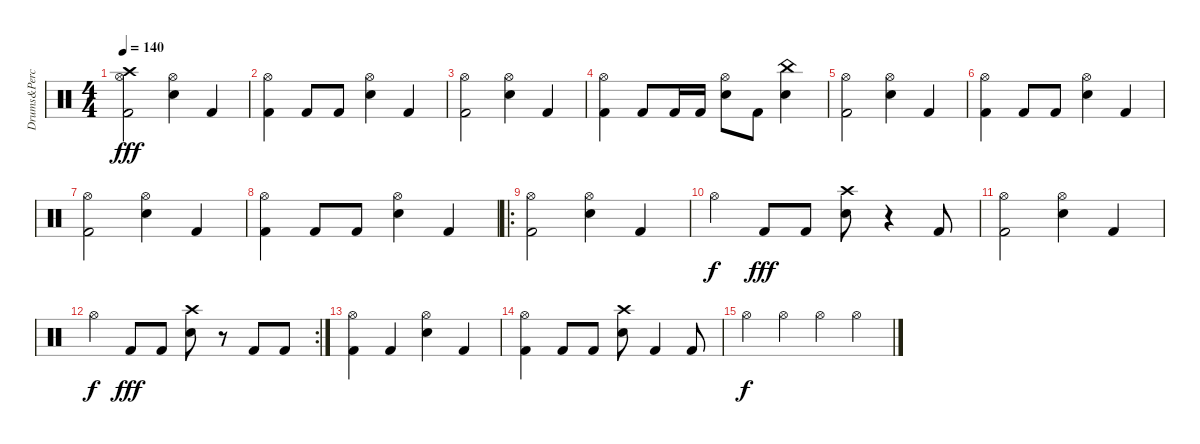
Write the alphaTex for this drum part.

\track ("Drums&Percusion" "Drums&Perc") {instrument percussion}
\staff {score}
\articulation defaults
\ts (4 4)
\tempo 140
\clef neutral
\ks c
("Hi-Hat (open)" "Crash high (hit)" "Kick (hit) 2").2{dy fff} ("Hi-Hat (open)" "Snare (hit) 2").4 "Kick (hit) 2".4 |
("Hi-Hat (open)" "Kick (hit) 2").4 "Kick (hit) 2".8 "Kick (hit) 2".8 ("Hi-Hat (open)" "Snare (hit) 2").4 "Kick (hit) 2".4 |
("Hi-Hat (open)" "Kick (hit) 2").2 ("Hi-Hat (open)" "Snare (hit) 2").4 "Kick (hit) 2".4 |
("Hi-Hat (open)" "Kick (hit) 2").4 "Kick (hit) 2".8 "Kick (hit) 2".16 "Kick (hit) 2".16 ("Hi-Hat (open)" "Snare (hit) 2").8 "Kick (hit) 2".8 ("China (hit)" "Snare (hit) 2").4 |
("Hi-Hat (open)" "Kick (hit) 2").2 ("Hi-Hat (open)" "Snare (hit) 2").4 "Kick (hit) 2".4 |
("Hi-Hat (open)" "Kick (hit) 2").4 "Kick (hit) 2".8 "Kick (hit) 2".8 ("Hi-Hat (open)" "Snare (hit) 2").4 "Kick (hit) 2".4 |
("Hi-Hat (open)" "Kick (hit) 2").2 ("Hi-Hat (open)" "Snare (hit) 2").4 "Kick (hit) 2".4 |
("Hi-Hat (open)" "Kick (hit) 2").4 "Kick (hit) 2".8 "Kick (hit) 2".8 ("Hi-Hat (open)" "Snare (hit) 2").4 "Kick (hit) 2".4 |
\ro
("Hi-Hat (open)" "Kick (hit) 2").2 ("Hi-Hat (open)" "Snare (hit) 2").4 "Kick (hit) 2".4 |
"Hi-Hat (open)".4{dy f} "Kick (hit) 2".8{dy fff} "Kick (hit) 2".8 ("Crash high (hit)" "Snare (hit) 2").8 r.4 "Kick (hit) 2".8 |
("Hi-Hat (open)" "Kick (hit) 2").2 ("Hi-Hat (open)" "Snare (hit) 2").4 "Kick (hit) 2".4 |
\rc 2 "Hi-Hat (open)".4{dy f} "Kick (hit) 2".8{dy fff} "Kick (hit) 2".8
("Crash high (hit)" "Snare (hit) 2").8 r.8 "Kick (hit) 2".8 "Kick (hit) 2".8 |
("Hi-Hat (open)" "Kick (hit) 2").4 "Kick (hit) 2".4 ("Hi-Hat (open)" "Snare (hit) 2").4 "Kick (hit) 2".4 |
("Hi-Hat (open)" "Kick (hit) 2").4 "Kick (hit) 2".8 "Kick (hit) 2".8 ("Crash high (hit)" "Snare (hit) 2").8 "Kick (hit) 2".4 "Kick (hit) 2".8 |
"Hi-Hat (open)".4{dy f} "Hi-Hat (open)".4 "Hi-Hat (open)".4 "Hi-Hat (open)".4
